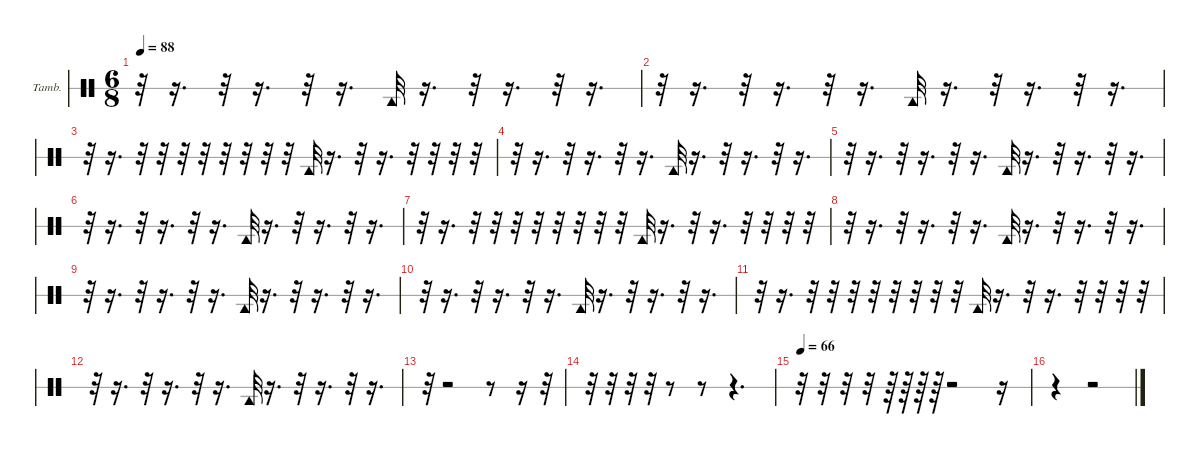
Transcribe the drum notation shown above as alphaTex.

\hideDynamics
\bracketExtendMode nobrackets
\firstSystemTrackNameOrientation horizontal
\otherSystemsTrackNameOrientation horizontal
\track ("Tambourine" "Tamb.") {instrument percussion}
\staff {score 1}
\articulation defaults
\ts (6 8)
\tempo 88
\clef neutral
\ks c
r.32{dy ff} r.16{d} r.32 r.16{d} r.32 r.16{d} "Tambourine (hit)".32 r.16{d} r.32 r.16{d} r.32 r.16{d} |
r.32 r.16{d} r.32 r.16{d} r.32 r.16{d} "Tambourine (hit)".32 r.16{d} r.32 r.16{d} r.32 r.16{d} |
r.32 r.16{d} r.32 r.32 r.32 r.32 r.32 r.32 r.32 r.32 "Tambourine (hit)".32 r.16{d} r.32 r.16{d} r.32 r.32 r.32 r.32 |
r.32 r.16{d} r.32 r.16{d} r.32 r.16{d} "Tambourine (hit)".32 r.16{d} r.32 r.16{d} r.32 r.16{d} |
r.32 r.16{d} r.32 r.16{d} r.32 r.16{d} "Tambourine (hit)".32 r.16{d} r.32 r.16{d} r.32 r.16{d} |
r.32 r.16{d} r.32 r.16{d} r.32 r.16{d} "Tambourine (hit)".32 r.16{d} r.32 r.16{d} r.32 r.16{d} |
r.32 r.16{d} r.32 r.32 r.32 r.32 r.32 r.32 r.32 r.32 "Tambourine (hit)".32 r.16{d} r.32 r.16{d} r.32 r.32 r.32 r.32 |
r.32 r.16{d} r.32 r.16{d} r.32 r.16{d} "Tambourine (hit)".32 r.16{d} r.32 r.16{d} r.32 r.16{d} |
r.32 r.16{d} r.32 r.16{d} r.32 r.16{d} "Tambourine (hit)".32 r.16{d} r.32 r.16{d} r.32 r.16{d} |
r.32 r.16{d} r.32 r.16{d} r.32 r.16{d} "Tambourine (hit)".32 r.16{d} r.32 r.16{d} r.32 r.16{d} |
r.32 r.16{d} r.32 r.32 r.32 r.32 r.32 r.32 r.32 r.32 "Tambourine (hit)".32 r.16{d} r.32 r.16{d} r.32 r.32 r.32 r.32 |
r.32 r.16{d} r.32 r.16{d} r.32 r.16{d} "Tambourine (hit)".32 r.16{d} r.32 r.16{d} r.32 r.16{d} |
r.32 r.2 r.8 r.16 r.32 |
r.32 r.32 r.32 r.32 r.8 r.8 r.4{d} |
\tempo 66
r.32 r.32 r.32 r.32 r.64 r.64 r.64 r.64 r.2 r.16 |
r.4 r.2
